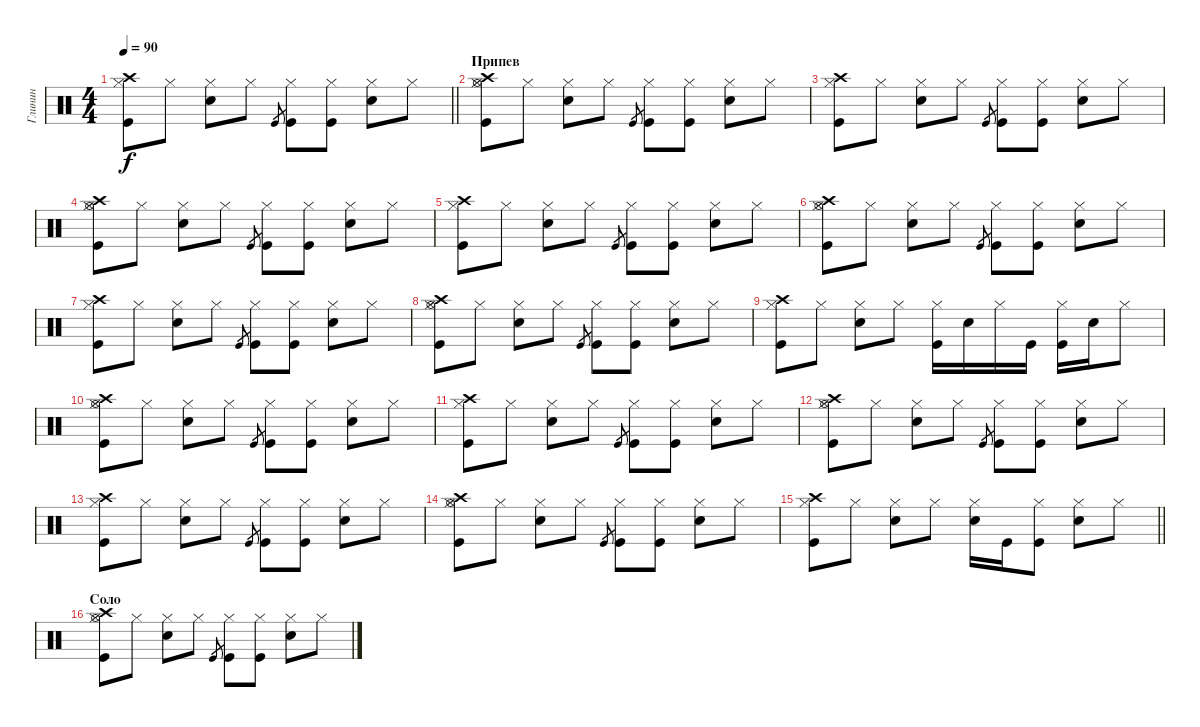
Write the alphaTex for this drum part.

\track ("Глинин" "Глинин") {instrument percussion}
\staff {score}
\articulation defaults
\ts (4 4)
\tempo 90
\clef neutral
\barLineRight lightlight
\ks c
("Hi-Hat (closed)" "Crash high (hit)" "Kick (hit)").8{dy f} "Hi-Hat (closed)".8 ("Hi-Hat (closed)" "Snare (hit) 2").8 "Hi-Hat (closed)".8 "Kick (hit)".8{gr} ("Hi-Hat (closed)" "Kick (hit)").8 ("Hi-Hat (closed)" "Kick (hit)").8 ("Hi-Hat (closed)" "Snare (hit) 2").8 "Hi-Hat (closed)".8 |
\section ("" "Припев")
("Hi-Hat (closed)" "Crash high (hit)" "Kick (hit)" "Hi-Hat (open)").8 "Hi-Hat (closed)".8 ("Hi-Hat (closed)" "Snare (hit) 2").8 "Hi-Hat (closed)".8 "Kick (hit)".8{gr} ("Hi-Hat (closed)" "Kick (hit)").8 ("Hi-Hat (closed)" "Kick (hit)").8 ("Hi-Hat (closed)" "Snare (hit) 2").8 "Hi-Hat (closed)".8 |
("Hi-Hat (closed)" "Crash high (hit)" "Kick (hit)").8 "Hi-Hat (closed)".8 ("Hi-Hat (closed)" "Snare (hit) 2").8 "Hi-Hat (closed)".8 "Kick (hit)".8{gr} ("Hi-Hat (closed)" "Kick (hit)").8 ("Hi-Hat (closed)" "Kick (hit)").8 ("Hi-Hat (closed)" "Snare (hit) 2").8 "Hi-Hat (closed)".8 |
("Hi-Hat (closed)" "Crash high (hit)" "Kick (hit)" "Hi-Hat (open)").8 "Hi-Hat (closed)".8 ("Hi-Hat (closed)" "Snare (hit) 2").8 "Hi-Hat (closed)".8 "Kick (hit)".8{gr} ("Hi-Hat (closed)" "Kick (hit)").8 ("Hi-Hat (closed)" "Kick (hit)").8 ("Hi-Hat (closed)" "Snare (hit) 2").8 "Hi-Hat (closed)".8 |
("Hi-Hat (closed)" "Crash high (hit)" "Kick (hit)").8 "Hi-Hat (closed)".8 ("Hi-Hat (closed)" "Snare (hit) 2").8 "Hi-Hat (closed)".8 "Kick (hit)".8{gr} ("Hi-Hat (closed)" "Kick (hit)").8 ("Hi-Hat (closed)" "Kick (hit)").8 ("Hi-Hat (closed)" "Snare (hit) 2").8 "Hi-Hat (closed)".8 |
("Hi-Hat (closed)" "Crash high (hit)" "Kick (hit)" "Hi-Hat (open)").8 "Hi-Hat (closed)".8 ("Hi-Hat (closed)" "Snare (hit) 2").8 "Hi-Hat (closed)".8 "Kick (hit)".8{gr} ("Hi-Hat (closed)" "Kick (hit)").8 ("Hi-Hat (closed)" "Kick (hit)").8 ("Hi-Hat (closed)" "Snare (hit) 2").8 "Hi-Hat (closed)".8 |
("Hi-Hat (closed)" "Crash high (hit)" "Kick (hit)").8 "Hi-Hat (closed)".8 ("Hi-Hat (closed)" "Snare (hit) 2").8 "Hi-Hat (closed)".8 "Kick (hit)".8{gr} ("Hi-Hat (closed)" "Kick (hit)").8 ("Hi-Hat (closed)" "Kick (hit)").8 ("Hi-Hat (closed)" "Snare (hit) 2").8 "Hi-Hat (closed)".8 |
("Hi-Hat (closed)" "Crash high (hit)" "Kick (hit)" "Hi-Hat (open)").8 "Hi-Hat (closed)".8 ("Hi-Hat (closed)" "Snare (hit) 2").8 "Hi-Hat (closed)".8 "Kick (hit)".8{gr} ("Hi-Hat (closed)" "Kick (hit)").8 ("Hi-Hat (closed)" "Kick (hit)").8 ("Hi-Hat (closed)" "Snare (hit) 2").8 "Hi-Hat (closed)".8 |
("Hi-Hat (closed)" "Crash high (hit)" "Kick (hit)").8 "Hi-Hat (closed)".8 ("Hi-Hat (closed)" "Snare (hit) 2").8 "Hi-Hat (closed)".8 ("Hi-Hat (closed)" "Kick (hit)").16 "Snare (hit) 2".16 "Hi-Hat (closed)".16 "Kick (hit)".16 ("Hi-Hat (closed)" "Kick (hit)").16 "Snare (hit) 2".16 "Hi-Hat (closed)".8 |
("Hi-Hat (closed)" "Crash high (hit)" "Kick (hit)" "Hi-Hat (open)").8 "Hi-Hat (closed)".8 ("Hi-Hat (closed)" "Snare (hit) 2").8 "Hi-Hat (closed)".8 "Kick (hit)".8{gr} ("Hi-Hat (closed)" "Kick (hit)").8 ("Hi-Hat (closed)" "Kick (hit)").8 ("Hi-Hat (closed)" "Snare (hit) 2").8 "Hi-Hat (closed)".8 |
("Hi-Hat (closed)" "Crash high (hit)" "Kick (hit)").8 "Hi-Hat (closed)".8 ("Hi-Hat (closed)" "Snare (hit) 2").8 "Hi-Hat (closed)".8 "Kick (hit)".8{gr} ("Hi-Hat (closed)" "Kick (hit)").8 ("Hi-Hat (closed)" "Kick (hit)").8 ("Hi-Hat (closed)" "Snare (hit) 2").8 "Hi-Hat (closed)".8 |
("Hi-Hat (closed)" "Crash high (hit)" "Kick (hit)" "Hi-Hat (open)").8 "Hi-Hat (closed)".8 ("Hi-Hat (closed)" "Snare (hit) 2").8 "Hi-Hat (closed)".8 "Kick (hit)".8{gr} ("Hi-Hat (closed)" "Kick (hit)").8 ("Hi-Hat (closed)" "Kick (hit)").8 ("Hi-Hat (closed)" "Snare (hit) 2").8 "Hi-Hat (closed)".8 |
("Hi-Hat (closed)" "Crash high (hit)" "Kick (hit)").8 "Hi-Hat (closed)".8 ("Hi-Hat (closed)" "Snare (hit) 2").8 "Hi-Hat (closed)".8 "Kick (hit)".8{gr} ("Hi-Hat (closed)" "Kick (hit)").8 ("Hi-Hat (closed)" "Kick (hit)").8 ("Hi-Hat (closed)" "Snare (hit) 2").8 "Hi-Hat (closed)".8 |
("Hi-Hat (closed)" "Crash high (hit)" "Kick (hit)" "Hi-Hat (open)").8 "Hi-Hat (closed)".8 ("Hi-Hat (closed)" "Snare (hit) 2").8 "Hi-Hat (closed)".8 "Kick (hit)".8{gr} ("Hi-Hat (closed)" "Kick (hit)").8 ("Hi-Hat (closed)" "Kick (hit)").8 ("Hi-Hat (closed)" "Snare (hit) 2").8 "Hi-Hat (closed)".8 |
\barLineRight lightlight
("Hi-Hat (closed)" "Crash high (hit)" "Kick (hit)").8 "Hi-Hat (closed)".8 ("Hi-Hat (closed)" "Snare (hit) 2").8 "Hi-Hat (closed)".8 ("Hi-Hat (closed)" "Snare (hit) 2").16 "Kick (hit)".16 ("Hi-Hat (closed)" "Kick (hit)").8 ("Hi-Hat (closed)" "Snare (hit) 2").8 "Hi-Hat (closed)".8 |
\section ("" "Соло")
("Hi-Hat (closed)" "Crash high (hit)" "Kick (hit)" "Hi-Hat (open)").8 "Hi-Hat (closed)".8 ("Hi-Hat (closed)" "Snare (hit) 2").8 "Hi-Hat (closed)".8 "Kick (hit)".8{gr} ("Hi-Hat (closed)" "Kick (hit)").8 ("Hi-Hat (closed)" "Kick (hit)").8 ("Hi-Hat (closed)" "Snare (hit) 2").8 "Hi-Hat (closed)".8
